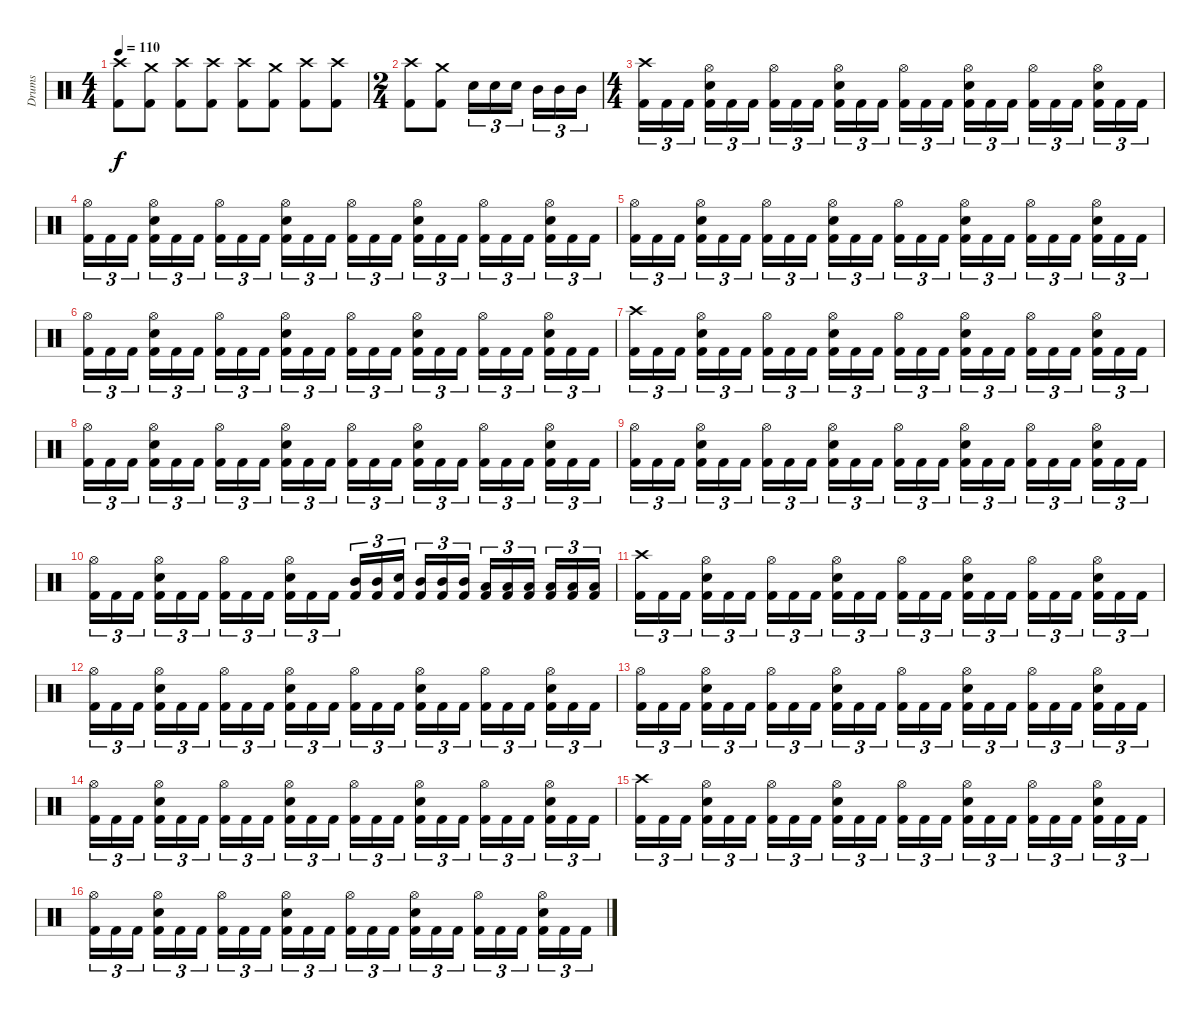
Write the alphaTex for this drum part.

\track ("Drums" "Drums") {instrument percussion}
\staff {score}
\articulation defaults
\ts (4 4)
\tempo 110
\clef neutral
\ks c
("Kick (hit) 2" "Crash high (hit)").8{dy f} ("Kick (hit) 2" "Crash medium (hit)").8 ("Kick (hit) 2" "Crash high (hit)").8 ("Kick (hit) 2" "Crash high (hit)").8 ("Kick (hit) 2" "Crash high (hit)").8 ("Kick (hit) 2" "Crash medium (hit)").8 ("Kick (hit) 2" "Crash high (hit)").8 ("Kick (hit) 2" "Crash high (hit)").8 |
\ts (2 4)
("Kick (hit) 2" "Crash high (hit)").8 ("Kick (hit) 2" "Crash medium (hit)").8 "Snare (hit) 2".16{tu (3 2)} "Snare (hit) 2".16{tu (3 2)} "Snare (hit) 2".16{tu (3 2)} "Mid Tom (hit)".16{tu (3 2)} "Mid Tom (hit)".16{tu (3 2)} "Mid Tom (hit)".16{tu (3 2)} |
\ts (4 4)
("Kick (hit) 2" "Crash high (hit)").16{tu (3 2)} "Kick (hit) 2".16{tu (3 2)} "Kick (hit) 2".16{tu (3 2)} ("Kick (hit) 2" "Snare (hit) 2" "Hi-Hat (open)").16{tu (3 2)} "Kick (hit) 2".16{tu (3 2)} "Kick (hit) 2".16{tu (3 2)} ("Kick (hit) 2" "Hi-Hat (open)").16{tu (3 2)} "Kick (hit) 2".16{tu (3 2)} "Kick (hit) 2".16{tu (3 2)} ("Kick (hit) 2" "Snare (hit) 2" "Hi-Hat (open)").16{tu (3 2)} "Kick (hit) 2".16{tu (3 2)} "Kick (hit) 2".16{tu (3 2)} ("Kick (hit) 2" "Hi-Hat (open)").16{tu (3 2)} "Kick (hit) 2".16{tu (3 2)} "Kick (hit) 2".16{tu (3 2)} ("Kick (hit) 2" "Snare (hit) 2" "Hi-Hat (open)").16{tu (3 2)} "Kick (hit) 2".16{tu (3 2)} "Kick (hit) 2".16{tu (3 2)} ("Kick (hit) 2" "Hi-Hat (open)").16{tu (3 2)} "Kick (hit) 2".16{tu (3 2)} "Kick (hit) 2".16{tu (3 2)} ("Kick (hit) 2" "Snare (hit) 2" "Hi-Hat (open)").16{tu (3 2)} "Kick (hit) 2".16{tu (3 2)} "Kick (hit) 2".16{tu (3 2)} |
("Kick (hit) 2" "Hi-Hat (open)").16{tu (3 2)} "Kick (hit) 2".16{tu (3 2)} "Kick (hit) 2".16{tu (3 2)} ("Kick (hit) 2" "Snare (hit) 2" "Hi-Hat (open)").16{tu (3 2)} "Kick (hit) 2".16{tu (3 2)} "Kick (hit) 2".16{tu (3 2)} ("Kick (hit) 2" "Hi-Hat (open)").16{tu (3 2)} "Kick (hit) 2".16{tu (3 2)} "Kick (hit) 2".16{tu (3 2)} ("Kick (hit) 2" "Snare (hit) 2" "Hi-Hat (open)").16{tu (3 2)} "Kick (hit) 2".16{tu (3 2)} "Kick (hit) 2".16{tu (3 2)} ("Kick (hit) 2" "Hi-Hat (open)").16{tu (3 2)} "Kick (hit) 2".16{tu (3 2)} "Kick (hit) 2".16{tu (3 2)} ("Kick (hit) 2" "Snare (hit) 2" "Hi-Hat (open)").16{tu (3 2)} "Kick (hit) 2".16{tu (3 2)} "Kick (hit) 2".16{tu (3 2)} ("Kick (hit) 2" "Hi-Hat (open)").16{tu (3 2)} "Kick (hit) 2".16{tu (3 2)} "Kick (hit) 2".16{tu (3 2)} ("Kick (hit) 2" "Snare (hit) 2" "Hi-Hat (open)").16{tu (3 2)} "Kick (hit) 2".16{tu (3 2)} "Kick (hit) 2".16{tu (3 2)} |
("Kick (hit) 2" "Hi-Hat (open)").16{tu (3 2)} "Kick (hit) 2".16{tu (3 2)} "Kick (hit) 2".16{tu (3 2)} ("Kick (hit) 2" "Snare (hit) 2" "Hi-Hat (open)").16{tu (3 2)} "Kick (hit) 2".16{tu (3 2)} "Kick (hit) 2".16{tu (3 2)} ("Kick (hit) 2" "Hi-Hat (open)").16{tu (3 2)} "Kick (hit) 2".16{tu (3 2)} "Kick (hit) 2".16{tu (3 2)} ("Kick (hit) 2" "Snare (hit) 2" "Hi-Hat (open)").16{tu (3 2)} "Kick (hit) 2".16{tu (3 2)} "Kick (hit) 2".16{tu (3 2)} ("Kick (hit) 2" "Hi-Hat (open)").16{tu (3 2)} "Kick (hit) 2".16{tu (3 2)} "Kick (hit) 2".16{tu (3 2)} ("Kick (hit) 2" "Snare (hit) 2" "Hi-Hat (open)").16{tu (3 2)} "Kick (hit) 2".16{tu (3 2)} "Kick (hit) 2".16{tu (3 2)} ("Kick (hit) 2" "Hi-Hat (open)").16{tu (3 2)} "Kick (hit) 2".16{tu (3 2)} "Kick (hit) 2".16{tu (3 2)} ("Kick (hit) 2" "Snare (hit) 2" "Hi-Hat (open)").16{tu (3 2)} "Kick (hit) 2".16{tu (3 2)} "Kick (hit) 2".16{tu (3 2)} |
("Kick (hit) 2" "Hi-Hat (open)").16{tu (3 2)} "Kick (hit) 2".16{tu (3 2)} "Kick (hit) 2".16{tu (3 2)} ("Kick (hit) 2" "Snare (hit) 2" "Hi-Hat (open)").16{tu (3 2)} "Kick (hit) 2".16{tu (3 2)} "Kick (hit) 2".16{tu (3 2)} ("Kick (hit) 2" "Hi-Hat (open)").16{tu (3 2)} "Kick (hit) 2".16{tu (3 2)} "Kick (hit) 2".16{tu (3 2)} ("Kick (hit) 2" "Snare (hit) 2" "Hi-Hat (open)").16{tu (3 2)} "Kick (hit) 2".16{tu (3 2)} "Kick (hit) 2".16{tu (3 2)} ("Kick (hit) 2" "Hi-Hat (open)").16{tu (3 2)} "Kick (hit) 2".16{tu (3 2)} "Kick (hit) 2".16{tu (3 2)} ("Kick (hit) 2" "Snare (hit) 2" "Hi-Hat (open)").16{tu (3 2)} "Kick (hit) 2".16{tu (3 2)} "Kick (hit) 2".16{tu (3 2)} ("Kick (hit) 2" "Hi-Hat (open)").16{tu (3 2)} "Kick (hit) 2".16{tu (3 2)} "Kick (hit) 2".16{tu (3 2)} ("Kick (hit) 2" "Snare (hit) 2" "Hi-Hat (open)").16{tu (3 2)} "Kick (hit) 2".16{tu (3 2)} "Kick (hit) 2".16{tu (3 2)} |
("Kick (hit) 2" "Crash high (hit)").16{tu (3 2)} "Kick (hit) 2".16{tu (3 2)} "Kick (hit) 2".16{tu (3 2)} ("Kick (hit) 2" "Snare (hit) 2" "Hi-Hat (open)").16{tu (3 2)} "Kick (hit) 2".16{tu (3 2)} "Kick (hit) 2".16{tu (3 2)} ("Kick (hit) 2" "Hi-Hat (open)").16{tu (3 2)} "Kick (hit) 2".16{tu (3 2)} "Kick (hit) 2".16{tu (3 2)} ("Kick (hit) 2" "Snare (hit) 2" "Hi-Hat (open)").16{tu (3 2)} "Kick (hit) 2".16{tu (3 2)} "Kick (hit) 2".16{tu (3 2)} ("Kick (hit) 2" "Hi-Hat (open)").16{tu (3 2)} "Kick (hit) 2".16{tu (3 2)} "Kick (hit) 2".16{tu (3 2)} ("Kick (hit) 2" "Snare (hit) 2" "Hi-Hat (open)").16{tu (3 2)} "Kick (hit) 2".16{tu (3 2)} "Kick (hit) 2".16{tu (3 2)} ("Kick (hit) 2" "Hi-Hat (open)").16{tu (3 2)} "Kick (hit) 2".16{tu (3 2)} "Kick (hit) 2".16{tu (3 2)} ("Kick (hit) 2" "Snare (hit) 2" "Hi-Hat (open)").16{tu (3 2)} "Kick (hit) 2".16{tu (3 2)} "Kick (hit) 2".16{tu (3 2)} |
("Kick (hit) 2" "Hi-Hat (open)").16{tu (3 2)} "Kick (hit) 2".16{tu (3 2)} "Kick (hit) 2".16{tu (3 2)} ("Kick (hit) 2" "Snare (hit) 2" "Hi-Hat (open)").16{tu (3 2)} "Kick (hit) 2".16{tu (3 2)} "Kick (hit) 2".16{tu (3 2)} ("Kick (hit) 2" "Hi-Hat (open)").16{tu (3 2)} "Kick (hit) 2".16{tu (3 2)} "Kick (hit) 2".16{tu (3 2)} ("Kick (hit) 2" "Snare (hit) 2" "Hi-Hat (open)").16{tu (3 2)} "Kick (hit) 2".16{tu (3 2)} "Kick (hit) 2".16{tu (3 2)} ("Kick (hit) 2" "Hi-Hat (open)").16{tu (3 2)} "Kick (hit) 2".16{tu (3 2)} "Kick (hit) 2".16{tu (3 2)} ("Kick (hit) 2" "Snare (hit) 2" "Hi-Hat (open)").16{tu (3 2)} "Kick (hit) 2".16{tu (3 2)} "Kick (hit) 2".16{tu (3 2)} ("Kick (hit) 2" "Hi-Hat (open)").16{tu (3 2)} "Kick (hit) 2".16{tu (3 2)} "Kick (hit) 2".16{tu (3 2)} ("Kick (hit) 2" "Snare (hit) 2" "Hi-Hat (open)").16{tu (3 2)} "Kick (hit) 2".16{tu (3 2)} "Kick (hit) 2".16{tu (3 2)} |
("Kick (hit) 2" "Hi-Hat (open)").16{tu (3 2)} "Kick (hit) 2".16{tu (3 2)} "Kick (hit) 2".16{tu (3 2)} ("Kick (hit) 2" "Snare (hit) 2" "Hi-Hat (open)").16{tu (3 2)} "Kick (hit) 2".16{tu (3 2)} "Kick (hit) 2".16{tu (3 2)} ("Kick (hit) 2" "Hi-Hat (open)").16{tu (3 2)} "Kick (hit) 2".16{tu (3 2)} "Kick (hit) 2".16{tu (3 2)} ("Kick (hit) 2" "Snare (hit) 2" "Hi-Hat (open)").16{tu (3 2)} "Kick (hit) 2".16{tu (3 2)} "Kick (hit) 2".16{tu (3 2)} ("Kick (hit) 2" "Hi-Hat (open)").16{tu (3 2)} "Kick (hit) 2".16{tu (3 2)} "Kick (hit) 2".16{tu (3 2)} ("Kick (hit) 2" "Snare (hit) 2" "Hi-Hat (open)").16{tu (3 2)} "Kick (hit) 2".16{tu (3 2)} "Kick (hit) 2".16{tu (3 2)} ("Kick (hit) 2" "Hi-Hat (open)").16{tu (3 2)} "Kick (hit) 2".16{tu (3 2)} "Kick (hit) 2".16{tu (3 2)} ("Kick (hit) 2" "Snare (hit) 2" "Hi-Hat (open)").16{tu (3 2)} "Kick (hit) 2".16{tu (3 2)} "Kick (hit) 2".16{tu (3 2)} |
("Kick (hit) 2" "Hi-Hat (open)").16{tu (3 2)} "Kick (hit) 2".16{tu (3 2)} "Kick (hit) 2".16{tu (3 2)} ("Kick (hit) 2" "Snare (hit) 2" "Hi-Hat (open)").16{tu (3 2)} "Kick (hit) 2".16{tu (3 2)} "Kick (hit) 2".16{tu (3 2)} ("Kick (hit) 2" "Hi-Hat (open)").16{tu (3 2)} "Kick (hit) 2".16{tu (3 2)} "Kick (hit) 2".16{tu (3 2)} ("Kick (hit) 2" "Snare (hit) 2" "Hi-Hat (open)").16{tu (3 2)} "Kick (hit) 2".16{tu (3 2)} "Kick (hit) 2".16{tu (3 2)} ("Kick (hit) 2" "Mid Tom (hit)").16{tu (3 2)} ("Kick (hit) 2" "Mid Tom (hit)").16{tu (3 2)} ("Kick (hit) 2" "Snare (hit) 2").16{tu (3 2)} ("Kick (hit) 2" "Mid Tom (hit)").16{tu (3 2)} ("Kick (hit) 2" "Mid Tom (hit)").16{tu (3 2)} ("Kick (hit) 2" "Mid Tom (hit)").16{tu (3 2)} ("Kick (hit) 2" "Low Tom (hit)").16{tu (3 2)} ("Kick (hit) 2" "Low Tom (hit)").16{tu (3 2)} ("Kick (hit) 2" "Low Tom (hit)").16{tu (3 2)} ("Kick (hit) 2" "Low Tom (hit)").16{tu (3 2)} ("Kick (hit) 2" "Low Tom (hit)").16{tu (3 2)} ("Kick (hit) 2" "Low Tom (hit)").16{tu (3 2)} |
("Kick (hit) 2" "Crash high (hit)").16{tu (3 2)} "Kick (hit) 2".16{tu (3 2)} "Kick (hit) 2".16{tu (3 2)} ("Kick (hit) 2" "Snare (hit) 2" "Hi-Hat (open)").16{tu (3 2)} "Kick (hit) 2".16{tu (3 2)} "Kick (hit) 2".16{tu (3 2)} ("Kick (hit) 2" "Hi-Hat (open)").16{tu (3 2)} "Kick (hit) 2".16{tu (3 2)} "Kick (hit) 2".16{tu (3 2)} ("Kick (hit) 2" "Snare (hit) 2" "Hi-Hat (open)").16{tu (3 2)} "Kick (hit) 2".16{tu (3 2)} "Kick (hit) 2".16{tu (3 2)} ("Kick (hit) 2" "Hi-Hat (open)").16{tu (3 2)} "Kick (hit) 2".16{tu (3 2)} "Kick (hit) 2".16{tu (3 2)} ("Kick (hit) 2" "Snare (hit) 2" "Hi-Hat (open)").16{tu (3 2)} "Kick (hit) 2".16{tu (3 2)} "Kick (hit) 2".16{tu (3 2)} ("Kick (hit) 2" "Hi-Hat (open)").16{tu (3 2)} "Kick (hit) 2".16{tu (3 2)} "Kick (hit) 2".16{tu (3 2)} ("Kick (hit) 2" "Snare (hit) 2" "Hi-Hat (open)").16{tu (3 2)} "Kick (hit) 2".16{tu (3 2)} "Kick (hit) 2".16{tu (3 2)} |
("Kick (hit) 2" "Hi-Hat (open)").16{tu (3 2)} "Kick (hit) 2".16{tu (3 2)} "Kick (hit) 2".16{tu (3 2)} ("Kick (hit) 2" "Snare (hit) 2" "Hi-Hat (open)").16{tu (3 2)} "Kick (hit) 2".16{tu (3 2)} "Kick (hit) 2".16{tu (3 2)} ("Kick (hit) 2" "Hi-Hat (open)").16{tu (3 2)} "Kick (hit) 2".16{tu (3 2)} "Kick (hit) 2".16{tu (3 2)} ("Kick (hit) 2" "Snare (hit) 2" "Hi-Hat (open)").16{tu (3 2)} "Kick (hit) 2".16{tu (3 2)} "Kick (hit) 2".16{tu (3 2)} ("Kick (hit) 2" "Hi-Hat (open)").16{tu (3 2)} "Kick (hit) 2".16{tu (3 2)} "Kick (hit) 2".16{tu (3 2)} ("Kick (hit) 2" "Snare (hit) 2" "Hi-Hat (open)").16{tu (3 2)} "Kick (hit) 2".16{tu (3 2)} "Kick (hit) 2".16{tu (3 2)} ("Kick (hit) 2" "Hi-Hat (open)").16{tu (3 2)} "Kick (hit) 2".16{tu (3 2)} "Kick (hit) 2".16{tu (3 2)} ("Kick (hit) 2" "Snare (hit) 2" "Hi-Hat (open)").16{tu (3 2)} "Kick (hit) 2".16{tu (3 2)} "Kick (hit) 2".16{tu (3 2)} |
("Kick (hit) 2" "Hi-Hat (open)").16{tu (3 2)} "Kick (hit) 2".16{tu (3 2)} "Kick (hit) 2".16{tu (3 2)} ("Kick (hit) 2" "Snare (hit) 2" "Hi-Hat (open)").16{tu (3 2)} "Kick (hit) 2".16{tu (3 2)} "Kick (hit) 2".16{tu (3 2)} ("Kick (hit) 2" "Hi-Hat (open)").16{tu (3 2)} "Kick (hit) 2".16{tu (3 2)} "Kick (hit) 2".16{tu (3 2)} ("Kick (hit) 2" "Snare (hit) 2" "Hi-Hat (open)").16{tu (3 2)} "Kick (hit) 2".16{tu (3 2)} "Kick (hit) 2".16{tu (3 2)} ("Kick (hit) 2" "Hi-Hat (open)").16{tu (3 2)} "Kick (hit) 2".16{tu (3 2)} "Kick (hit) 2".16{tu (3 2)} ("Kick (hit) 2" "Snare (hit) 2" "Hi-Hat (open)").16{tu (3 2)} "Kick (hit) 2".16{tu (3 2)} "Kick (hit) 2".16{tu (3 2)} ("Kick (hit) 2" "Hi-Hat (open)").16{tu (3 2)} "Kick (hit) 2".16{tu (3 2)} "Kick (hit) 2".16{tu (3 2)} ("Kick (hit) 2" "Snare (hit) 2" "Hi-Hat (open)").16{tu (3 2)} "Kick (hit) 2".16{tu (3 2)} "Kick (hit) 2".16{tu (3 2)} |
("Kick (hit) 2" "Hi-Hat (open)").16{tu (3 2)} "Kick (hit) 2".16{tu (3 2)} "Kick (hit) 2".16{tu (3 2)} ("Kick (hit) 2" "Snare (hit) 2" "Hi-Hat (open)").16{tu (3 2)} "Kick (hit) 2".16{tu (3 2)} "Kick (hit) 2".16{tu (3 2)} ("Kick (hit) 2" "Hi-Hat (open)").16{tu (3 2)} "Kick (hit) 2".16{tu (3 2)} "Kick (hit) 2".16{tu (3 2)} ("Kick (hit) 2" "Snare (hit) 2" "Hi-Hat (open)").16{tu (3 2)} "Kick (hit) 2".16{tu (3 2)} "Kick (hit) 2".16{tu (3 2)} ("Kick (hit) 2" "Hi-Hat (open)").16{tu (3 2)} "Kick (hit) 2".16{tu (3 2)} "Kick (hit) 2".16{tu (3 2)} ("Kick (hit) 2" "Snare (hit) 2" "Hi-Hat (open)").16{tu (3 2)} "Kick (hit) 2".16{tu (3 2)} "Kick (hit) 2".16{tu (3 2)} ("Kick (hit) 2" "Hi-Hat (open)").16{tu (3 2)} "Kick (hit) 2".16{tu (3 2)} "Kick (hit) 2".16{tu (3 2)} ("Kick (hit) 2" "Snare (hit) 2" "Hi-Hat (open)").16{tu (3 2)} "Kick (hit) 2".16{tu (3 2)} "Kick (hit) 2".16{tu (3 2)} |
("Kick (hit) 2" "Crash high (hit)").16{tu (3 2)} "Kick (hit) 2".16{tu (3 2)} "Kick (hit) 2".16{tu (3 2)} ("Kick (hit) 2" "Snare (hit) 2" "Hi-Hat (open)").16{tu (3 2)} "Kick (hit) 2".16{tu (3 2)} "Kick (hit) 2".16{tu (3 2)} ("Kick (hit) 2" "Hi-Hat (open)").16{tu (3 2)} "Kick (hit) 2".16{tu (3 2)} "Kick (hit) 2".16{tu (3 2)} ("Kick (hit) 2" "Snare (hit) 2" "Hi-Hat (open)").16{tu (3 2)} "Kick (hit) 2".16{tu (3 2)} "Kick (hit) 2".16{tu (3 2)} ("Kick (hit) 2" "Hi-Hat (open)").16{tu (3 2)} "Kick (hit) 2".16{tu (3 2)} "Kick (hit) 2".16{tu (3 2)} ("Kick (hit) 2" "Snare (hit) 2" "Hi-Hat (open)").16{tu (3 2)} "Kick (hit) 2".16{tu (3 2)} "Kick (hit) 2".16{tu (3 2)} ("Kick (hit) 2" "Hi-Hat (open)").16{tu (3 2)} "Kick (hit) 2".16{tu (3 2)} "Kick (hit) 2".16{tu (3 2)} ("Kick (hit) 2" "Snare (hit) 2" "Hi-Hat (open)").16{tu (3 2)} "Kick (hit) 2".16{tu (3 2)} "Kick (hit) 2".16{tu (3 2)} |
("Kick (hit) 2" "Hi-Hat (open)").16{tu (3 2)} "Kick (hit) 2".16{tu (3 2)} "Kick (hit) 2".16{tu (3 2)} ("Kick (hit) 2" "Snare (hit) 2" "Hi-Hat (open)").16{tu (3 2)} "Kick (hit) 2".16{tu (3 2)} "Kick (hit) 2".16{tu (3 2)} ("Kick (hit) 2" "Hi-Hat (open)").16{tu (3 2)} "Kick (hit) 2".16{tu (3 2)} "Kick (hit) 2".16{tu (3 2)} ("Kick (hit) 2" "Snare (hit) 2" "Hi-Hat (open)").16{tu (3 2)} "Kick (hit) 2".16{tu (3 2)} "Kick (hit) 2".16{tu (3 2)} ("Kick (hit) 2" "Hi-Hat (open)").16{tu (3 2)} "Kick (hit) 2".16{tu (3 2)} "Kick (hit) 2".16{tu (3 2)} ("Kick (hit) 2" "Snare (hit) 2" "Hi-Hat (open)").16{tu (3 2)} "Kick (hit) 2".16{tu (3 2)} "Kick (hit) 2".16{tu (3 2)} ("Kick (hit) 2" "Hi-Hat (open)").16{tu (3 2)} "Kick (hit) 2".16{tu (3 2)} "Kick (hit) 2".16{tu (3 2)} ("Kick (hit) 2" "Snare (hit) 2" "Hi-Hat (open)").16{tu (3 2)} "Kick (hit) 2".16{tu (3 2)} "Kick (hit) 2".16{tu (3 2)}
